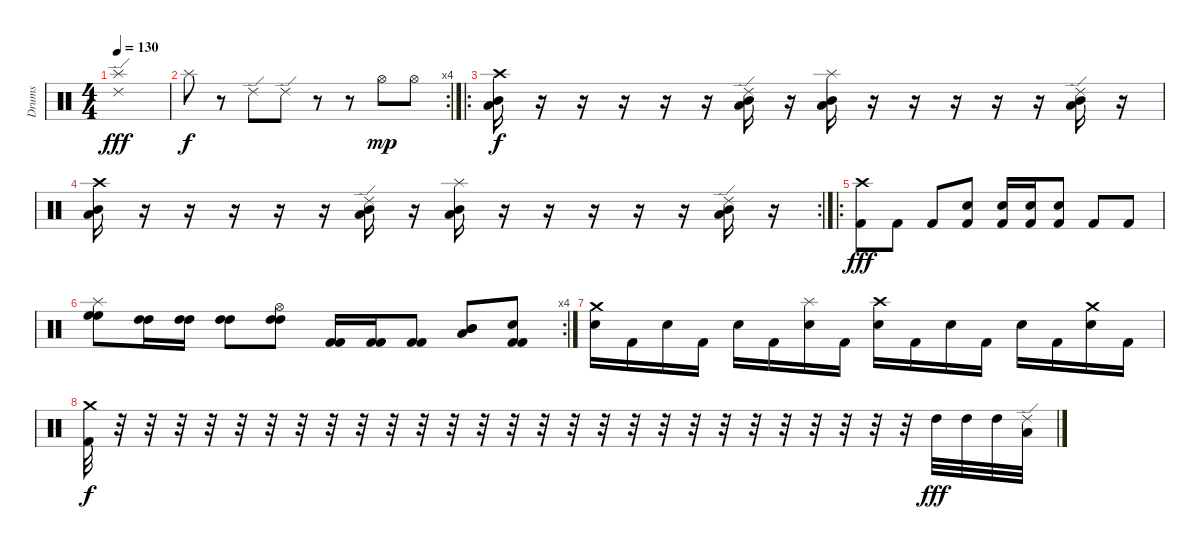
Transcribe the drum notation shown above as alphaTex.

\track ("Drums" "Drums") {instrument percussion}
\staff {score}
\articulation defaults
\ts (4 4)
\tempo 130
\clef neutral
\ks c
("Splash (hit)" "Ride (edge) 2").1{dy fff} |
\rc 4 "Splash (hit)".8{dy f}
r.8 "Ride (edge) 2".8 "Ride (edge) 2".8 r.8 r.8 "Hi-Hat (open)".8{dy mp} "Hi-Hat (open)".8 |
\ro
("Crash high (hit)" "Mid Tom (hit)" "Low Floor Tom (hit)").16{dy f} r.16 r.16 r.16 r.16 r.16 ("Ride (edge) 2" "Mid Tom (hit)" "Low Floor Tom (hit)").16 r.16 ("Splash (hit)" "Mid Tom (hit)" "Low Floor Tom (hit)").16 r.16 r.16 r.16 r.16 r.16 ("Ride (edge) 2" "Mid Tom (hit)" "Low Floor Tom (hit)").16 r.16 |
\rc 2
("Crash high (hit)" "Mid Tom (hit)" "Low Floor Tom (hit)").16 r.16 r.16 r.16 r.16 r.16 ("Ride (edge) 2" "Low Floor Tom (hit)" "Mid Tom (hit)").16 r.16 ("Splash (hit)" "Mid Tom (hit)" "Low Floor Tom (hit)").16 r.16 r.16 r.16 r.16 r.16 ("Ride (edge) 2" "Mid Tom (hit)" "Low Floor Tom (hit)").16 r.16 |
\ro
("Crash high (hit)" "Kick (hit) 2").8{dy fff} "Kick (hit) 2".8 "Kick (hit) 2".8 ("Snare (hit) 2" "Kick (hit) 2").8 ("Snare (hit) 2" "Kick (hit) 2").16 ("Snare (hit) 2" "Kick (hit) 2").16 ("Snare (hit) 2" "Kick (hit) 2").8 "Kick (hit) 2".8 "Kick (hit) 2".8 |
\rc 4
("High Floor Tom (hit)" "Splash (hit)" "High Floor Tom (hit)").8 ("High Tom (hit)" "High Tom (hit)").16 ("High Tom (hit)" "High Tom (hit)").16 ("High Tom (hit)" "High Tom (hit)").8 ("High Tom (hit)" "Hi-Hat (open)" "High Tom (hit)").8 ("Kick (hit) 2" "Kick (hit) 2").16 ("Kick (hit) 2" "Kick (hit) 2").16 ("Kick (hit) 2" "Kick (hit) 2").8 ("Mid Tom (hit)" "Mid Tom (hit)" "Low Floor Tom (hit)").8 ("Snare (hit) 2" "Kick (hit) 2" "Kick (hit) 2").8 |
("Snare (hit) 2" "Crash medium (hit)").16 "Kick (hit) 2".16 "Snare (hit) 2".16 "Kick (hit) 2".16 "Snare (hit) 2".16 "Kick (hit) 2".16 ("Snare (hit) 2" "Splash (hit)").16 "Kick (hit) 2".16 ("Snare (hit) 2" "Crash high (hit)").16 "Kick (hit) 2".16 "Snare (hit) 2".16 "Kick (hit) 2".16 "Snare (hit) 2".16 "Kick (hit) 2".16 ("Snare (hit) 2" "Crash medium (hit)").16 "Kick (hit) 2".16 |
("Crash medium (hit)" "Kick (hit) 2").32{dy f} r.32 r.32 r.32 r.32 r.32 r.32 r.32 r.32 r.32 r.32 r.32 r.32 r.32 r.32 r.32 r.32 r.32 r.32 r.32 r.32 r.32 r.32 r.32 r.32 r.32 r.32 r.32 "High Tom (hit)".32{dy fff} "High Tom (hit)".32 "High Tom (hit)".32 ("Ride (edge) 2" "Low Tom (hit)").32
